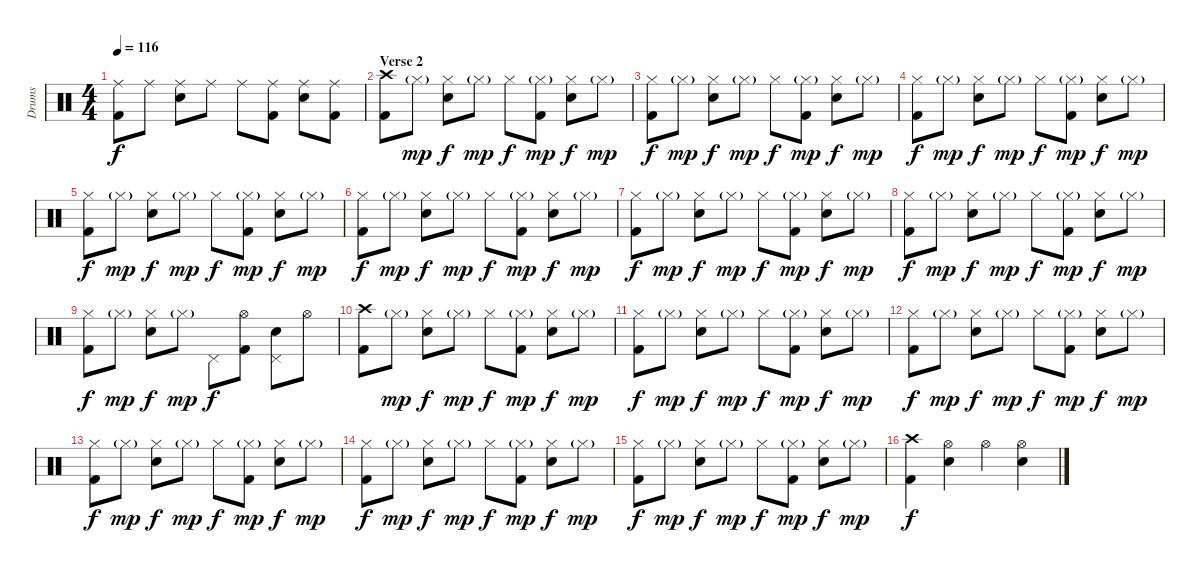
\track ("Drums" "Drums") {instrument percussion}
\staff {score}
\articulation defaults
\ts (4 4)
\tempo 116
\clef neutral
\ks c
("Ride (middle)" "Kick (hit) 2").8{dy f} "Ride (middle)".8 ("Ride (middle)" "Snare (hit) 2").8 "Ride (middle)".8 "Ride (middle)".8 ("Ride (middle)" "Kick (hit) 2").8 ("Ride (middle)" "Snare (hit) 2").8 ("Ride (middle)" "Kick (hit) 2").8 |
\section ("" "Verse 2")
("Crash high (hit)" "Kick (hit) 2").8 "Hi-Hat (closed)"{g}.8{dy mp} ("Hi-Hat (closed)" "Snare (hit) 2").8{dy f} "Hi-Hat (closed)"{g}.8{dy mp} "Hi-Hat (closed)".8{dy f} ("Hi-Hat (closed)"{g} "Kick (hit) 2").8{dy mp} ("Hi-Hat (closed)" "Snare (hit) 2").8{dy f} "Hi-Hat (closed)"{g}.8{dy mp} |
("Hi-Hat (closed)" "Kick (hit) 2").8{dy f} "Hi-Hat (closed)"{g}.8{dy mp} ("Hi-Hat (closed)" "Snare (hit) 2").8{dy f} "Hi-Hat (closed)"{g}.8{dy mp} "Hi-Hat (closed)".8{dy f} ("Hi-Hat (closed)"{g} "Kick (hit) 2").8{dy mp} ("Hi-Hat (closed)" "Snare (hit) 2").8{dy f} "Hi-Hat (closed)"{g}.8{dy mp} |
("Hi-Hat (closed)" "Kick (hit) 2").8{dy f} "Hi-Hat (closed)"{g}.8{dy mp} ("Hi-Hat (closed)" "Snare (hit) 2").8{dy f} "Hi-Hat (closed)"{g}.8{dy mp} "Hi-Hat (closed)".8{dy f} ("Hi-Hat (closed)"{g} "Kick (hit) 2").8{dy mp} ("Hi-Hat (closed)" "Snare (hit) 2").8{dy f} "Hi-Hat (closed)"{g}.8{dy mp} |
("Hi-Hat (closed)" "Kick (hit) 2").8{dy f} "Hi-Hat (closed)"{g}.8{dy mp} ("Hi-Hat (closed)" "Snare (hit) 2").8{dy f} "Hi-Hat (closed)"{g}.8{dy mp} "Hi-Hat (closed)".8{dy f} ("Hi-Hat (closed)"{g} "Kick (hit) 2").8{dy mp} ("Hi-Hat (closed)" "Snare (hit) 2").8{dy f} "Hi-Hat (closed)"{g}.8{dy mp} |
("Hi-Hat (closed)" "Kick (hit) 2").8{dy f} "Hi-Hat (closed)"{g}.8{dy mp} ("Hi-Hat (closed)" "Snare (hit) 2").8{dy f} "Hi-Hat (closed)"{g}.8{dy mp} "Hi-Hat (closed)".8{dy f} ("Hi-Hat (closed)"{g} "Kick (hit) 2").8{dy mp} ("Hi-Hat (closed)" "Snare (hit) 2").8{dy f} "Hi-Hat (closed)"{g}.8{dy mp} |
("Hi-Hat (closed)" "Kick (hit) 2").8{dy f} "Hi-Hat (closed)"{g}.8{dy mp} ("Hi-Hat (closed)" "Snare (hit) 2").8{dy f} "Hi-Hat (closed)"{g}.8{dy mp} "Hi-Hat (closed)".8{dy f} ("Hi-Hat (closed)"{g} "Kick (hit) 2").8{dy mp} ("Hi-Hat (closed)" "Snare (hit) 2").8{dy f} "Hi-Hat (closed)"{g}.8{dy mp} |
("Hi-Hat (closed)" "Kick (hit) 2").8{dy f} "Hi-Hat (closed)"{g}.8{dy mp} ("Hi-Hat (closed)" "Snare (hit) 2").8{dy f} "Hi-Hat (closed)"{g}.8{dy mp} "Hi-Hat (closed)".8{dy f} ("Hi-Hat (closed)"{g} "Kick (hit) 2").8{dy mp} ("Hi-Hat (closed)" "Snare (hit) 2").8{dy f} "Hi-Hat (closed)"{g}.8{dy mp} |
("Hi-Hat (closed)" "Kick (hit) 2").8{dy f} "Hi-Hat (closed)"{g}.8{dy mp} ("Hi-Hat (closed)" "Snare (hit) 2").8{dy f} "Hi-Hat (closed)"{g}.8{dy mp} "Pedal Hi-Hat (hit)".8{dy f} ("Hi-Hat (open)" "Kick (hit) 2").8 ("Snare (hit) 2" "Pedal Hi-Hat (hit)").8 "Hi-Hat (open)".8 |
("Crash high (hit)" "Kick (hit) 2").8 "Hi-Hat (closed)"{g}.8{dy mp} ("Hi-Hat (closed)" "Snare (hit) 2").8{dy f} "Hi-Hat (closed)"{g}.8{dy mp} "Hi-Hat (closed)".8{dy f} ("Hi-Hat (closed)"{g} "Kick (hit) 2").8{dy mp} ("Hi-Hat (closed)" "Snare (hit) 2").8{dy f} "Hi-Hat (closed)"{g}.8{dy mp} |
("Hi-Hat (closed)" "Kick (hit) 2").8{dy f} "Hi-Hat (closed)"{g}.8{dy mp} ("Hi-Hat (closed)" "Snare (hit) 2").8{dy f} "Hi-Hat (closed)"{g}.8{dy mp} "Hi-Hat (closed)".8{dy f} ("Hi-Hat (closed)"{g} "Kick (hit) 2").8{dy mp} ("Hi-Hat (closed)" "Snare (hit) 2").8{dy f} "Hi-Hat (closed)"{g}.8{dy mp} |
("Hi-Hat (closed)" "Kick (hit) 2").8{dy f} "Hi-Hat (closed)"{g}.8{dy mp} ("Hi-Hat (closed)" "Snare (hit) 2").8{dy f} "Hi-Hat (closed)"{g}.8{dy mp} "Hi-Hat (closed)".8{dy f} ("Hi-Hat (closed)"{g} "Kick (hit) 2").8{dy mp} ("Hi-Hat (closed)" "Snare (hit) 2").8{dy f} "Hi-Hat (closed)"{g}.8{dy mp} |
("Hi-Hat (closed)" "Kick (hit) 2").8{dy f} "Hi-Hat (closed)"{g}.8{dy mp} ("Hi-Hat (closed)" "Snare (hit) 2").8{dy f} "Hi-Hat (closed)"{g}.8{dy mp} "Hi-Hat (closed)".8{dy f} ("Hi-Hat (closed)"{g} "Kick (hit) 2").8{dy mp} ("Hi-Hat (closed)" "Snare (hit) 2").8{dy f} "Hi-Hat (closed)"{g}.8{dy mp} |
("Hi-Hat (closed)" "Kick (hit) 2").8{dy f} "Hi-Hat (closed)"{g}.8{dy mp} ("Hi-Hat (closed)" "Snare (hit) 2").8{dy f} "Hi-Hat (closed)"{g}.8{dy mp} "Hi-Hat (closed)".8{dy f} ("Hi-Hat (closed)"{g} "Kick (hit) 2").8{dy mp} ("Hi-Hat (closed)" "Snare (hit) 2").8{dy f} "Hi-Hat (closed)"{g}.8{dy mp} |
("Hi-Hat (closed)" "Kick (hit) 2").8{dy f} "Hi-Hat (closed)"{g}.8{dy mp} ("Hi-Hat (closed)" "Snare (hit) 2").8{dy f} "Hi-Hat (closed)"{g}.8{dy mp} "Hi-Hat (closed)".8{dy f} ("Hi-Hat (closed)"{g} "Kick (hit) 2").8{dy mp} ("Hi-Hat (closed)" "Snare (hit) 2").8{dy f} "Hi-Hat (closed)"{g}.8{dy mp} |
("Crash high (hit)" "Kick (hit) 2").4{dy f} ("Hi-Hat (open)" "Snare (hit) 2").4 "Hi-Hat (open)".4 ("Hi-Hat (open)" "Snare (hit) 2").4
